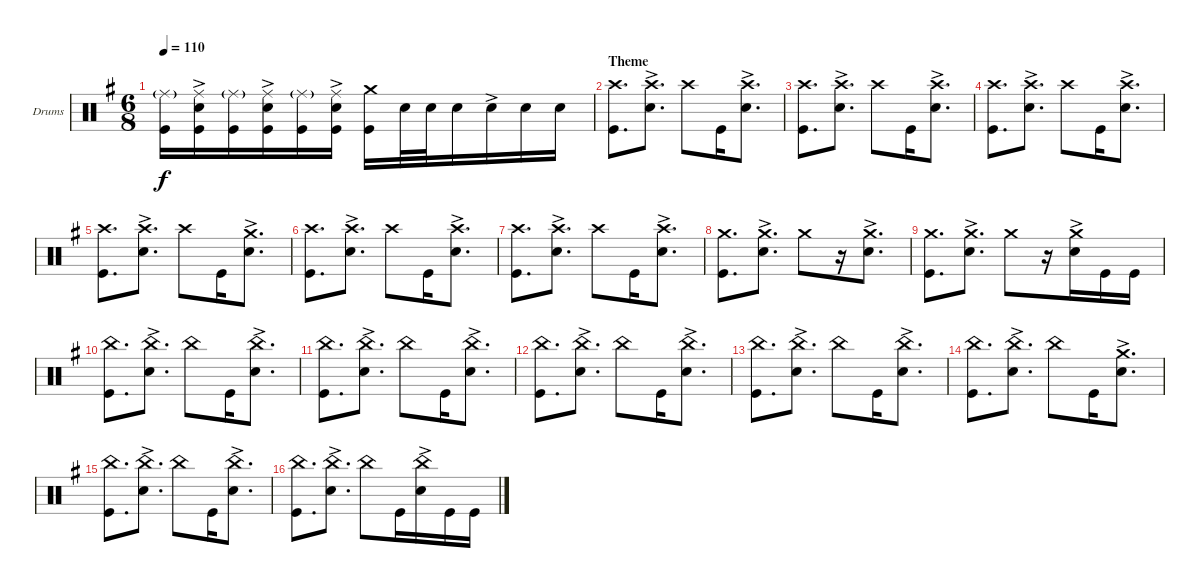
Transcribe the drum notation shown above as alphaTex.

\bracketExtendMode groupsimilarinstruments
\firstSystemTrackNameOrientation horizontal
\otherSystemsTrackNameOrientation horizontal
\track ("Drumkit" "Drums") {instrument percussion}
\staff {score}
\articulation defaults
\ts (6 8)
\tempo 110
\clef neutral
\ks eminor
("Kick (hit)" "Ride (middle)"{g}).16{dy f} ("Kick (hit)" "Snare (hit) 2"{ac} "Ride (middle)").16 ("Kick (hit)" "Ride (middle)"{g}).16 ("Kick (hit)" "Snare (hit) 2"{ac} "Ride (middle)").16 ("Kick (hit)" "Ride (middle)"{g}).16 ("Kick (hit)" "Snare (hit) 2"{ac} "Ride (middle)").16 ("Kick (hit)" "Crash medium (hit)").16 "Snare (hit) 2".32 "Snare (hit) 2".32 "Snare (hit) 2".16 "Snare (hit) 2"{ac}.16 "Snare (hit) 2".16 "Snare (hit) 2".16 |
\section ("" "Theme")
("Kick (hit)" "Crash high (hit)").8{d} ("Snare (hit) 2"{ac} "Crash high (hit)").8{d} "Crash high (hit)".8 "Kick (hit)".16 ("Snare (hit) 2"{ac} "Crash high (hit)").8{d} |
("Kick (hit)" "Crash high (hit)").8{d} ("Snare (hit) 2"{ac} "Crash high (hit)").8{d} "Crash high (hit)".8 "Kick (hit)".16 ("Snare (hit) 2"{ac} "Crash high (hit)").8{d} |
("Kick (hit)" "Crash high (hit)").8{d} ("Snare (hit) 2"{ac} "Crash high (hit)").8{d} "Crash high (hit)".8 "Kick (hit)".16 ("Snare (hit) 2"{ac} "Crash high (hit)").8{d} |
("Kick (hit)" "Crash high (hit)").8{d} ("Snare (hit) 2"{ac} "Crash high (hit)").8{d} "Crash high (hit)".8 "Kick (hit)".16 ("Snare (hit) 2"{ac} "Crash medium (hit)").8{d} |
("Kick (hit)" "Crash high (hit)").8{d} ("Snare (hit) 2"{ac} "Crash high (hit)").8{d} "Crash high (hit)".8 "Kick (hit)".16 ("Snare (hit) 2"{ac} "Crash high (hit)").8{d} |
("Kick (hit)" "Crash high (hit)").8{d} ("Snare (hit) 2"{ac} "Crash high (hit)").8{d} "Crash high (hit)".8 "Kick (hit)".16 ("Snare (hit) 2"{ac} "Crash high (hit)").8{d} |
("Kick (hit)" "Crash medium (hit)").8{d} ("Snare (hit) 2"{ac} "Crash medium (hit)").8{d} "Crash medium (hit)".8 r.16 ("Snare (hit) 2"{ac} "Crash medium (hit)").8{d} |
("Kick (hit)" "Crash medium (hit)").8{d} ("Snare (hit) 2"{ac} "Crash medium (hit)").8{d} "Crash medium (hit)".8 r.16 ("Snare (hit) 2"{ac} "Crash medium (hit)").16 "Kick (hit)".16 "Kick (hit)".16 |
("Kick (hit)" "China (hit)").8{d} ("Snare (hit) 2"{ac} "China (hit)").8{d} "China (hit)".8 "Kick (hit)".16 ("Snare (hit) 2"{ac} "China (hit)").8{d} |
("Kick (hit)" "China (hit)").8{d} ("Snare (hit) 2"{ac} "China (hit)").8{d} "China (hit)".8 "Kick (hit)".16 ("Snare (hit) 2"{ac} "China (hit)").8{d} |
("Kick (hit)" "China (hit)").8{d} ("Snare (hit) 2"{ac} "China (hit)").8{d} "China (hit)".8 "Kick (hit)".16 ("Snare (hit) 2"{ac} "China (hit)").8{d} |
("Kick (hit)" "China (hit)").8{d} ("Snare (hit) 2"{ac} "China (hit)").8{d} "China (hit)".8 "Kick (hit)".16 ("Snare (hit) 2"{ac} "China (hit)").8{d} |
("Kick (hit)" "China (hit)").8{d} ("Snare (hit) 2"{ac} "China (hit)").8{d} "China (hit)".8 "Kick (hit)".16 ("Snare (hit) 2"{ac} "Crash medium (hit)").8{d} |
("Kick (hit)" "China (hit)").8{d} ("Snare (hit) 2"{ac} "China (hit)").8{d} "China (hit)".8 "Kick (hit)".16 ("Snare (hit) 2"{ac} "China (hit)").8{d} |
("Kick (hit)" "China (hit)").8{d} ("Snare (hit) 2"{ac} "China (hit)").8{d} "China (hit)".8 "Kick (hit)".16 ("Snare (hit) 2"{ac} "China (hit)").16 "Kick (hit)".16 "Kick (hit)".16
